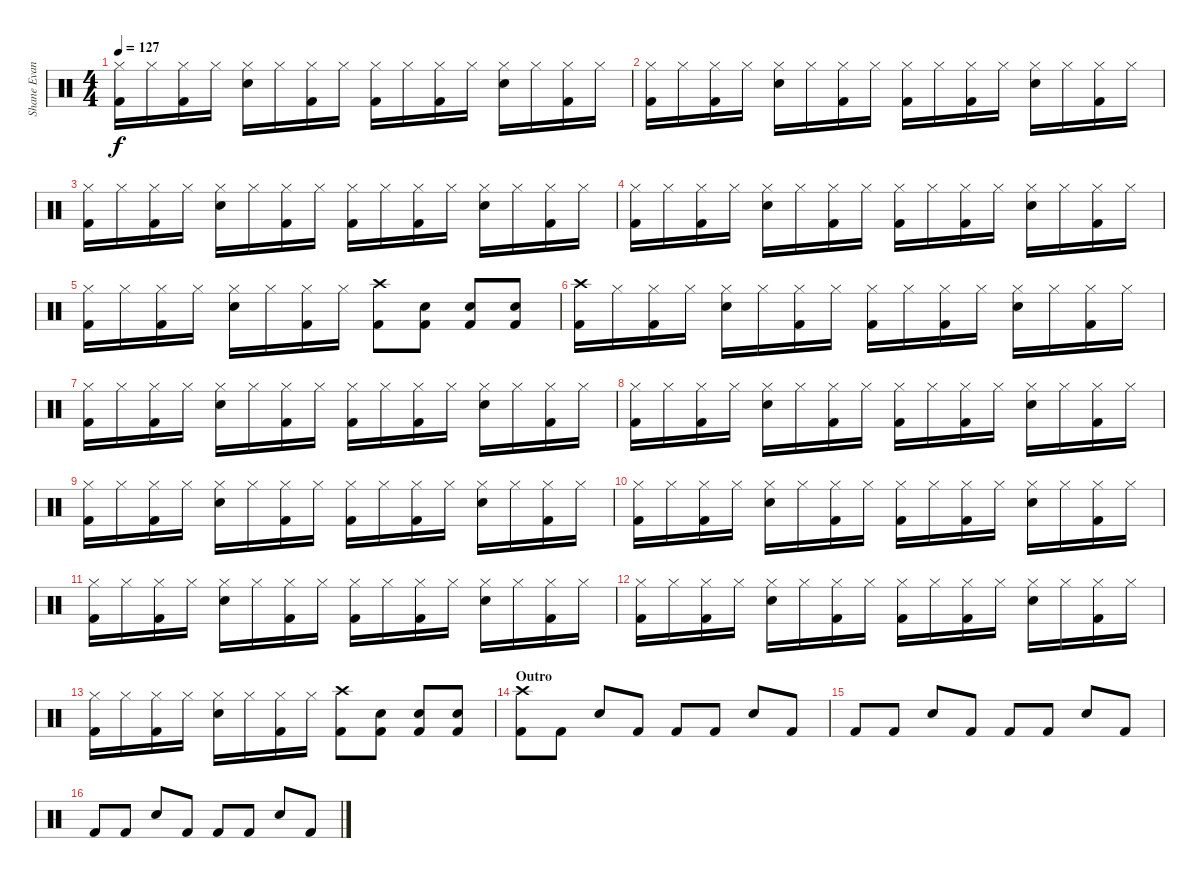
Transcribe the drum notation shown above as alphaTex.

\track ("Shane Evans" "Shane Evan") {instrument percussion}
\staff {score}
\articulation defaults
\ts (4 4)
\tempo 127
\clef neutral
\ks c
("Hi-Hat (closed)" "Kick (hit) 2").16{dy f} "Hi-Hat (closed)".16 ("Hi-Hat (closed)" "Kick (hit) 2").16 "Hi-Hat (closed)".16 ("Hi-Hat (closed)" "Snare (hit) 2").16 "Hi-Hat (closed)".16 ("Hi-Hat (closed)" "Kick (hit) 2").16 "Hi-Hat (closed)".16 ("Hi-Hat (closed)" "Kick (hit) 2").16 "Hi-Hat (closed)".16 ("Hi-Hat (closed)" "Kick (hit) 2").16 "Hi-Hat (closed)".16 ("Hi-Hat (closed)" "Snare (hit) 2").16 "Hi-Hat (closed)".16 ("Hi-Hat (closed)" "Kick (hit) 2").16 "Hi-Hat (closed)".16 |
("Hi-Hat (closed)" "Kick (hit) 2").16 "Hi-Hat (closed)".16 ("Hi-Hat (closed)" "Kick (hit) 2").16 "Hi-Hat (closed)".16 ("Hi-Hat (closed)" "Snare (hit) 2").16 "Hi-Hat (closed)".16 ("Hi-Hat (closed)" "Kick (hit) 2").16 "Hi-Hat (closed)".16 ("Hi-Hat (closed)" "Kick (hit) 2").16 "Hi-Hat (closed)".16 ("Hi-Hat (closed)" "Kick (hit) 2").16 "Hi-Hat (closed)".16 ("Hi-Hat (closed)" "Snare (hit) 2").16 "Hi-Hat (closed)".16 ("Hi-Hat (closed)" "Kick (hit) 2").16 "Hi-Hat (closed)".16 |
("Hi-Hat (closed)" "Kick (hit) 2").16 "Hi-Hat (closed)".16 ("Hi-Hat (closed)" "Kick (hit) 2").16 "Hi-Hat (closed)".16 ("Hi-Hat (closed)" "Snare (hit) 2").16 "Hi-Hat (closed)".16 ("Hi-Hat (closed)" "Kick (hit) 2").16 "Hi-Hat (closed)".16 ("Hi-Hat (closed)" "Kick (hit) 2").16 "Hi-Hat (closed)".16 ("Hi-Hat (closed)" "Kick (hit) 2").16 "Hi-Hat (closed)".16 ("Hi-Hat (closed)" "Snare (hit) 2").16 "Hi-Hat (closed)".16 ("Hi-Hat (closed)" "Kick (hit) 2").16 "Hi-Hat (closed)".16 |
("Hi-Hat (closed)" "Kick (hit) 2").16 "Hi-Hat (closed)".16 ("Hi-Hat (closed)" "Kick (hit) 2").16 "Hi-Hat (closed)".16 ("Hi-Hat (closed)" "Snare (hit) 2").16 "Hi-Hat (closed)".16 ("Hi-Hat (closed)" "Kick (hit) 2").16 "Hi-Hat (closed)".16 ("Hi-Hat (closed)" "Kick (hit) 2").16 "Hi-Hat (closed)".16 ("Hi-Hat (closed)" "Kick (hit) 2").16 "Hi-Hat (closed)".16 ("Hi-Hat (closed)" "Snare (hit) 2").16 "Hi-Hat (closed)".16 ("Hi-Hat (closed)" "Kick (hit) 2").16 "Hi-Hat (closed)".16 |
("Hi-Hat (closed)" "Kick (hit) 2").16 "Hi-Hat (closed)".16 ("Hi-Hat (closed)" "Kick (hit) 2").16 "Hi-Hat (closed)".16 ("Hi-Hat (closed)" "Snare (hit) 2").16 "Hi-Hat (closed)".16 ("Hi-Hat (closed)" "Kick (hit) 2").16 "Hi-Hat (closed)".16 ("Crash high (hit)" "Kick (hit) 2").8 ("Snare (hit) 2" "Kick (hit) 2").8 ("Snare (hit) 2" "Kick (hit) 2").8 ("Snare (hit) 2" "Kick (hit) 2").8 |
("Crash high (hit)" "Kick (hit) 2").16 "Hi-Hat (closed)".16 ("Hi-Hat (closed)" "Kick (hit) 2").16 "Hi-Hat (closed)".16 ("Hi-Hat (closed)" "Snare (hit) 2").16 "Hi-Hat (closed)".16 ("Hi-Hat (closed)" "Kick (hit) 2").16 "Hi-Hat (closed)".16 ("Hi-Hat (closed)" "Kick (hit) 2").16 "Hi-Hat (closed)".16 ("Hi-Hat (closed)" "Kick (hit) 2").16 "Hi-Hat (closed)".16 ("Hi-Hat (closed)" "Snare (hit) 2").16 "Hi-Hat (closed)".16 ("Hi-Hat (closed)" "Kick (hit) 2").16 "Hi-Hat (closed)".16 |
("Hi-Hat (closed)" "Kick (hit) 2").16 "Hi-Hat (closed)".16 ("Hi-Hat (closed)" "Kick (hit) 2").16 "Hi-Hat (closed)".16 ("Hi-Hat (closed)" "Snare (hit) 2").16 "Hi-Hat (closed)".16 ("Hi-Hat (closed)" "Kick (hit) 2").16 "Hi-Hat (closed)".16 ("Hi-Hat (closed)" "Kick (hit) 2").16 "Hi-Hat (closed)".16 ("Hi-Hat (closed)" "Kick (hit) 2").16 "Hi-Hat (closed)".16 ("Hi-Hat (closed)" "Snare (hit) 2").16 "Hi-Hat (closed)".16 ("Hi-Hat (closed)" "Kick (hit) 2").16 "Hi-Hat (closed)".16 |
("Hi-Hat (closed)" "Kick (hit) 2").16 "Hi-Hat (closed)".16 ("Hi-Hat (closed)" "Kick (hit) 2").16 "Hi-Hat (closed)".16 ("Hi-Hat (closed)" "Snare (hit) 2").16 "Hi-Hat (closed)".16 ("Hi-Hat (closed)" "Kick (hit) 2").16 "Hi-Hat (closed)".16 ("Hi-Hat (closed)" "Kick (hit) 2").16 "Hi-Hat (closed)".16 ("Hi-Hat (closed)" "Kick (hit) 2").16 "Hi-Hat (closed)".16 ("Hi-Hat (closed)" "Snare (hit) 2").16 "Hi-Hat (closed)".16 ("Hi-Hat (closed)" "Kick (hit) 2").16 "Hi-Hat (closed)".16 |
("Hi-Hat (closed)" "Kick (hit) 2").16 "Hi-Hat (closed)".16 ("Hi-Hat (closed)" "Kick (hit) 2").16 "Hi-Hat (closed)".16 ("Hi-Hat (closed)" "Snare (hit) 2").16 "Hi-Hat (closed)".16 ("Hi-Hat (closed)" "Kick (hit) 2").16 "Hi-Hat (closed)".16 ("Hi-Hat (closed)" "Kick (hit) 2").16 "Hi-Hat (closed)".16 ("Hi-Hat (closed)" "Kick (hit) 2").16 "Hi-Hat (closed)".16 ("Hi-Hat (closed)" "Snare (hit) 2").16 "Hi-Hat (closed)".16 ("Hi-Hat (closed)" "Kick (hit) 2").16 "Hi-Hat (closed)".16 |
("Hi-Hat (closed)" "Kick (hit) 2").16 "Hi-Hat (closed)".16 ("Hi-Hat (closed)" "Kick (hit) 2").16 "Hi-Hat (closed)".16 ("Hi-Hat (closed)" "Snare (hit) 2").16 "Hi-Hat (closed)".16 ("Hi-Hat (closed)" "Kick (hit) 2").16 "Hi-Hat (closed)".16 ("Hi-Hat (closed)" "Kick (hit) 2").16 "Hi-Hat (closed)".16 ("Hi-Hat (closed)" "Kick (hit) 2").16 "Hi-Hat (closed)".16 ("Hi-Hat (closed)" "Snare (hit) 2").16 "Hi-Hat (closed)".16 ("Hi-Hat (closed)" "Kick (hit) 2").16 "Hi-Hat (closed)".16 |
("Hi-Hat (closed)" "Kick (hit) 2").16 "Hi-Hat (closed)".16 ("Hi-Hat (closed)" "Kick (hit) 2").16 "Hi-Hat (closed)".16 ("Hi-Hat (closed)" "Snare (hit) 2").16 "Hi-Hat (closed)".16 ("Hi-Hat (closed)" "Kick (hit) 2").16 "Hi-Hat (closed)".16 ("Hi-Hat (closed)" "Kick (hit) 2").16 "Hi-Hat (closed)".16 ("Hi-Hat (closed)" "Kick (hit) 2").16 "Hi-Hat (closed)".16 ("Hi-Hat (closed)" "Snare (hit) 2").16 "Hi-Hat (closed)".16 ("Hi-Hat (closed)" "Kick (hit) 2").16 "Hi-Hat (closed)".16 |
("Hi-Hat (closed)" "Kick (hit) 2").16 "Hi-Hat (closed)".16 ("Hi-Hat (closed)" "Kick (hit) 2").16 "Hi-Hat (closed)".16 ("Hi-Hat (closed)" "Snare (hit) 2").16 "Hi-Hat (closed)".16 ("Hi-Hat (closed)" "Kick (hit) 2").16 "Hi-Hat (closed)".16 ("Hi-Hat (closed)" "Kick (hit) 2").16 "Hi-Hat (closed)".16 ("Hi-Hat (closed)" "Kick (hit) 2").16 "Hi-Hat (closed)".16 ("Hi-Hat (closed)" "Snare (hit) 2").16 "Hi-Hat (closed)".16 ("Hi-Hat (closed)" "Kick (hit) 2").16 "Hi-Hat (closed)".16 |
("Hi-Hat (closed)" "Kick (hit) 2").16 "Hi-Hat (closed)".16 ("Hi-Hat (closed)" "Kick (hit) 2").16 "Hi-Hat (closed)".16 ("Hi-Hat (closed)" "Snare (hit) 2").16 "Hi-Hat (closed)".16 ("Hi-Hat (closed)" "Kick (hit) 2").16 "Hi-Hat (closed)".16 ("Crash high (hit)" "Kick (hit) 2").8 ("Snare (hit) 2" "Kick (hit) 2").8 ("Snare (hit) 2" "Kick (hit) 2").8 ("Snare (hit) 2" "Kick (hit) 2").8 |
\section ("" "Outro")
("Crash high (hit)" "Kick (hit) 2").8 "Kick (hit) 2".8 "Snare (hit) 2".8 "Kick (hit) 2".8 "Kick (hit) 2".8 "Kick (hit) 2".8 "Snare (hit) 2".8 "Kick (hit) 2".8 |
"Kick (hit) 2".8 "Kick (hit) 2".8 "Snare (hit) 2".8 "Kick (hit) 2".8 "Kick (hit) 2".8 "Kick (hit) 2".8 "Snare (hit) 2".8 "Kick (hit) 2".8 |
"Kick (hit) 2".8 "Kick (hit) 2".8 "Snare (hit) 2".8 "Kick (hit) 2".8 "Kick (hit) 2".8 "Kick (hit) 2".8 "Snare (hit) 2".8 "Kick (hit) 2".8
